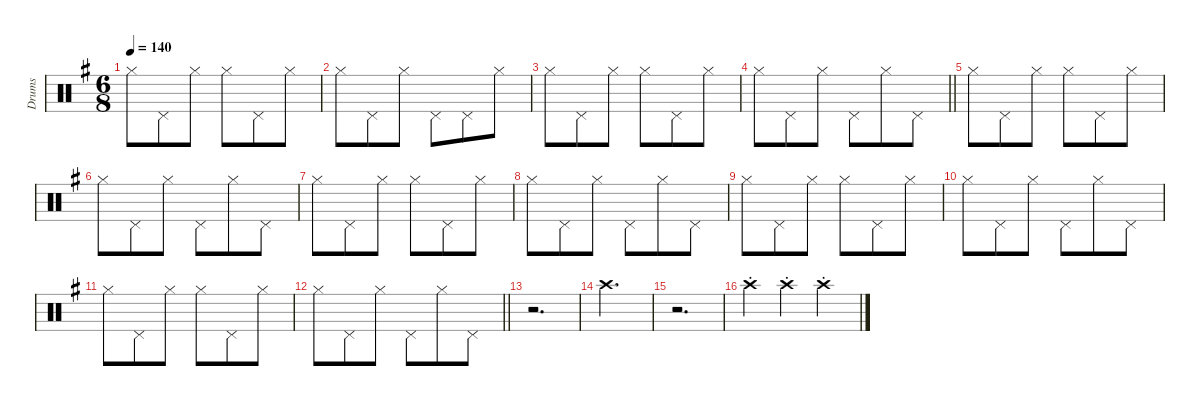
\defaultSystemsLayout 8
\hideDynamics
\bracketExtendMode groupsimilarinstruments
\firstSystemTrackNameMode fullname
\otherSystemsTrackNameOrientation horizontal
\track ("Drums" "drm.") {defaultSystemsLayout 4 instrument percussion}
\staff {score}
\articulation defaults
\ts (6 8)
\tempo 140
\clef neutral
\ks g "Hi-Hat (closed)"{acc forcenatural}.8{dy mp beam Down} "Pedal Hi-Hat (hit)"{acc forcenatural}.8{beam Down} "Hi-Hat (closed)"{acc forcenatural}.8{beam Down} "Hi-Hat (closed)"{acc forcenatural}.8{beam Down} "Pedal Hi-Hat (hit)"{acc forcenatural}.8{beam Down} "Hi-Hat (closed)"{acc forcenatural}.8{beam Down}
|
"Hi-Hat (closed)"{acc forcenatural}.8{beam Down} "Pedal Hi-Hat (hit)"{acc forcenatural}.8{beam Down} "Hi-Hat (closed)"{acc forcenatural}.8{beam Down} "Pedal Hi-Hat (hit)"{acc forcenatural}.8{beam Down} "Pedal Hi-Hat (hit)"{acc forcenatural}.8{beam Down} "Hi-Hat (closed)"{acc forcenatural}.8{beam Down} |
"Hi-Hat (closed)"{acc forcenatural}.8{beam Down} "Pedal Hi-Hat (hit)"{acc forcenatural}.8{beam Down} "Hi-Hat (closed)"{acc forcenatural}.8{beam Down} "Hi-Hat (closed)"{acc forcenatural}.8{beam Down} "Pedal Hi-Hat (hit)"{acc forcenatural}.8{beam Down} "Hi-Hat (closed)"{acc forcenatural}.8{beam Down} |
\barLineRight lightlight "Hi-Hat (closed)"{acc forcenatural}.8{beam Down} "Pedal Hi-Hat (hit)"{acc forcenatural}.8{beam Down} "Hi-Hat (closed)"{acc forcenatural}.8{beam Down} "Pedal Hi-Hat (hit)"{acc forcenatural}.8{beam Down} "Hi-Hat (closed)"{acc forcenatural}.8{beam Down} "Pedal Hi-Hat (hit)"{acc forcenatural}.8{beam Down}
|
"Hi-Hat (closed)"{acc forcenatural}.8{beam Down} "Pedal Hi-Hat (hit)"{acc forcenatural}.8{beam Down} "Hi-Hat (closed)"{acc forcenatural}.8{beam Down} "Hi-Hat (closed)"{acc forcenatural}.8{beam Down} "Pedal Hi-Hat (hit)"{acc forcenatural}.8{beam Down} "Hi-Hat (closed)"{acc forcenatural}.8{beam Down} |
"Hi-Hat (closed)"{acc forcenatural}.8{beam Down} "Pedal Hi-Hat (hit)"{acc forcenatural}.8{beam Down} "Hi-Hat (closed)"{acc forcenatural}.8{beam Down} "Pedal Hi-Hat (hit)"{acc forcenatural}.8{beam Down} "Hi-Hat (closed)"{acc forcenatural}.8{beam Down} "Pedal Hi-Hat (hit)"{acc forcenatural}.8{beam Down} |
"Hi-Hat (closed)"{acc forcenatural}.8{beam Down} "Pedal Hi-Hat (hit)"{acc forcenatural}.8{beam Down} "Hi-Hat (closed)"{acc forcenatural}.8{beam Down} "Hi-Hat (closed)"{acc forcenatural}.8{beam Down} "Pedal Hi-Hat (hit)"{acc forcenatural}.8{beam Down} "Hi-Hat (closed)"{acc forcenatural}.8{beam Down} |
"Hi-Hat (closed)"{acc forcenatural}.8{beam Down} "Pedal Hi-Hat (hit)"{acc forcenatural}.8{beam Down} "Hi-Hat (closed)"{acc forcenatural}.8{beam Down} "Pedal Hi-Hat (hit)"{acc forcenatural}.8{beam Down} "Hi-Hat (closed)"{acc forcenatural}.8{beam Down} "Pedal Hi-Hat (hit)"{acc forcenatural}.8{beam Down} |
"Hi-Hat (closed)"{acc forcenatural}.8{beam Down} "Pedal Hi-Hat (hit)"{acc forcenatural}.8{beam Down} "Hi-Hat (closed)"{acc forcenatural}.8{beam Down} "Hi-Hat (closed)"{acc forcenatural}.8{beam Down} "Pedal Hi-Hat (hit)"{acc forcenatural}.8{beam Down} "Hi-Hat (closed)"{acc forcenatural}.8{beam Down} |
"Hi-Hat (closed)"{acc forcenatural}.8{beam Down} "Pedal Hi-Hat (hit)"{acc forcenatural}.8{beam Down} "Hi-Hat (closed)"{acc forcenatural}.8{beam Down} "Pedal Hi-Hat (hit)"{acc forcenatural}.8{beam Down} "Hi-Hat (closed)"{acc forcenatural}.8{beam Down} "Pedal Hi-Hat (hit)"{acc forcenatural}.8{beam Down} |
"Hi-Hat (closed)"{acc forcenatural}.8{beam Down} "Pedal Hi-Hat (hit)"{acc forcenatural}.8{beam Down} "Hi-Hat (closed)"{acc forcenatural}.8{beam Down} "Hi-Hat (closed)"{acc forcenatural}.8{beam Down} "Pedal Hi-Hat (hit)"{acc forcenatural}.8{beam Down} "Hi-Hat (closed)"{acc forcenatural}.8{beam Down} |
\barLineRight lightlight "Hi-Hat (closed)"{acc forcenatural}.8{beam Down} "Pedal Hi-Hat (hit)"{acc forcenatural}.8{beam Down} "Hi-Hat (closed)"{acc forcenatural}.8{beam Down} "Pedal Hi-Hat (hit)"{acc forcenatural}.8{beam Down} "Hi-Hat (closed)"{acc forcenatural}.8{beam Down} "Pedal Hi-Hat (hit)"{acc forcenatural}.8{beam Down}
|
r.2{d beam Down} |
"Crash high (hit)"{acc forcenatural}.2{d dy ff beam Down} |
r.2{d beam Down} |
"Crash high (hit)"{st acc forcenatural}.4{dy mf beam Down} "Crash high (hit)"{st acc forcenatural}.4{beam Down} "Crash high (hit)"{st acc forcenatural}.4{beam Down}
